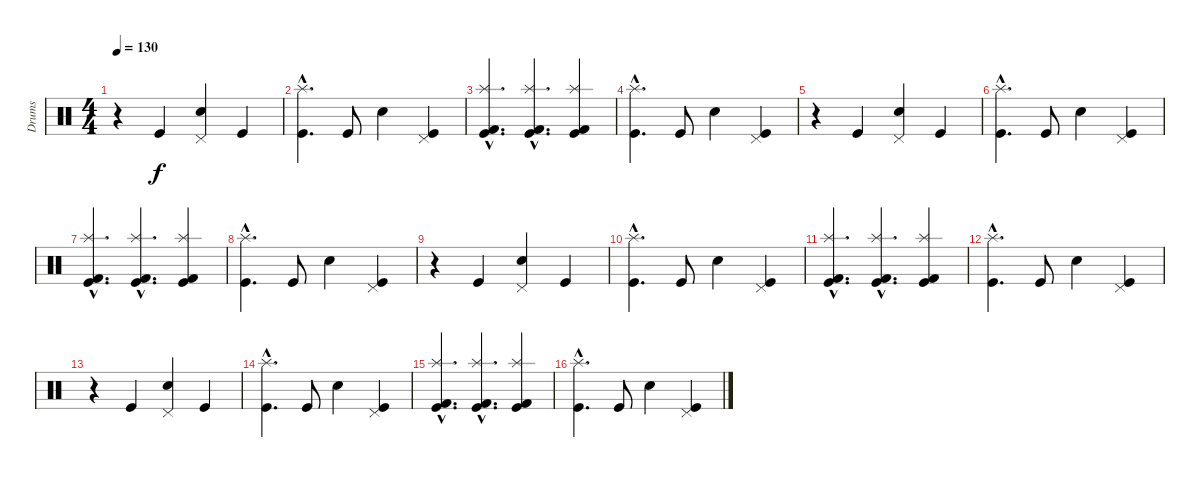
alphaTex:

\track ("Drums" "Drums") {instrument percussion}
\staff {score}
\articulation defaults
\ts (4 4)
\tempo 130
\clef neutral
\ks c
r.4{dy f} "Kick (hit)".4 ("Electric Snare (hit)" "Pedal Hi-Hat (hit)").4 "Kick (hit)".4 |
("Kick (hit)"{hac} "Splash (hit)"{hac}).4{d} "Kick (hit)".8 "Electric Snare (hit)".4 ("Kick (hit)" "Pedal Hi-Hat (hit)").4 |
("Kick (hit) 2"{hac} "Kick (hit)"{hac} "Splash (hit)"{hac}).4{d} ("Kick (hit) 2"{hac} "Kick (hit)"{hac} "Splash (hit)"{hac}).4{d} ("Kick (hit) 2" "Kick (hit)" "Splash (hit)").4 |
("Kick (hit)"{hac} "Splash (hit)"{hac}).4{d} "Kick (hit)".8 "Electric Snare (hit)".4 ("Kick (hit)" "Pedal Hi-Hat (hit)").4 |
r.4 "Kick (hit)".4 ("Electric Snare (hit)" "Pedal Hi-Hat (hit)").4 "Kick (hit)".4 |
("Kick (hit)"{hac} "Splash (hit)"{hac}).4{d} "Kick (hit)".8 "Electric Snare (hit)".4 ("Kick (hit)" "Pedal Hi-Hat (hit)").4 |
("Kick (hit) 2"{hac} "Kick (hit)"{hac} "Splash (hit)"{hac}).4{d} ("Kick (hit) 2"{hac} "Kick (hit)"{hac} "Splash (hit)"{hac}).4{d} ("Kick (hit) 2" "Kick (hit)" "Splash (hit)").4 |
("Kick (hit)"{hac} "Splash (hit)"{hac}).4{d} "Kick (hit)".8 "Electric Snare (hit)".4 ("Kick (hit)" "Pedal Hi-Hat (hit)").4 |
r.4 "Kick (hit)".4 ("Electric Snare (hit)" "Pedal Hi-Hat (hit)").4 "Kick (hit)".4 |
("Kick (hit)"{hac} "Splash (hit)"{hac}).4{d} "Kick (hit)".8 "Electric Snare (hit)".4 ("Kick (hit)" "Pedal Hi-Hat (hit)").4 |
("Kick (hit) 2"{hac} "Kick (hit)"{hac} "Splash (hit)"{hac}).4{d} ("Kick (hit) 2"{hac} "Kick (hit)"{hac} "Splash (hit)"{hac}).4{d} ("Kick (hit) 2" "Kick (hit)" "Splash (hit)").4 |
("Kick (hit)"{hac} "Splash (hit)"{hac}).4{d} "Kick (hit)".8 "Electric Snare (hit)".4 ("Kick (hit)" "Pedal Hi-Hat (hit)").4 |
r.4 "Kick (hit)".4 ("Electric Snare (hit)" "Pedal Hi-Hat (hit)").4 "Kick (hit)".4 |
("Kick (hit)"{hac} "Splash (hit)"{hac}).4{d} "Kick (hit)".8 "Electric Snare (hit)".4 ("Kick (hit)" "Pedal Hi-Hat (hit)").4 |
("Kick (hit) 2"{hac} "Kick (hit)"{hac} "Splash (hit)"{hac}).4{d} ("Kick (hit) 2"{hac} "Kick (hit)"{hac} "Splash (hit)"{hac}).4{d} ("Kick (hit) 2" "Kick (hit)" "Splash (hit)").4 |
("Kick (hit)"{hac} "Splash (hit)"{hac}).4{d} "Kick (hit)".8 "Electric Snare (hit)".4 ("Kick (hit)" "Pedal Hi-Hat (hit)").4
